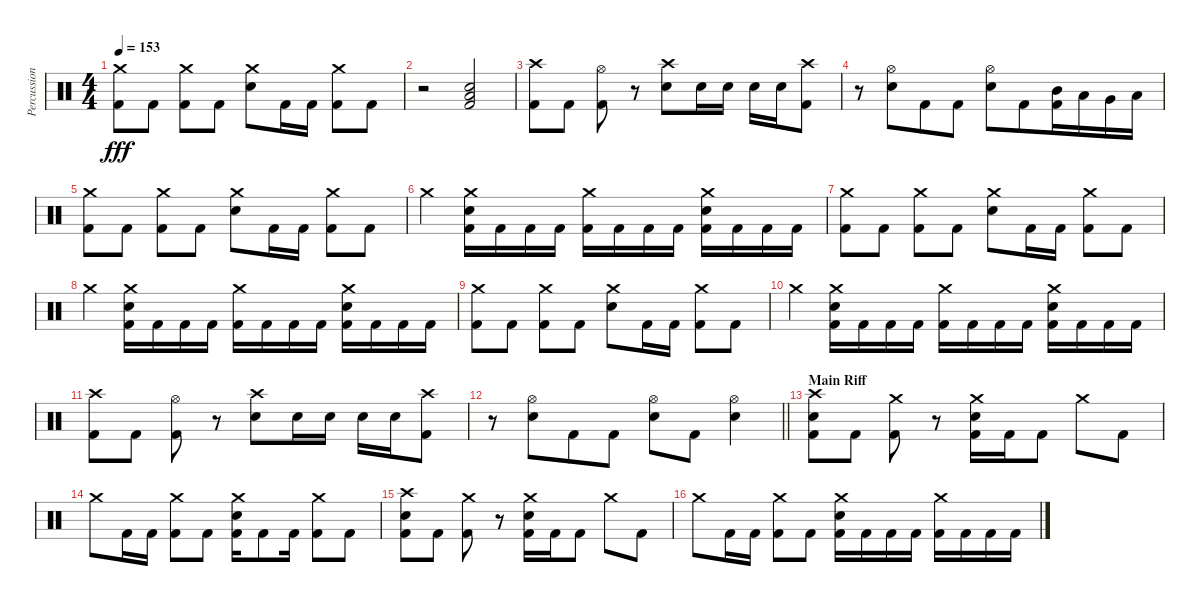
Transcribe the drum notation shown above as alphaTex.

\track ("Percussion" "Percussion") {instrument percussion}
\staff {score}
\articulation defaults
\ts (4 4)
\tempo 153
\clef neutral
\ks c
("Crash medium (hit)" "Kick (hit) 2").8{dy fff} "Kick (hit) 2".8 ("Crash medium (hit)" "Kick (hit) 2").8 "Kick (hit) 2".8 ("Crash medium (hit)" "Snare (hit) 2").8 "Kick (hit) 2".16 "Kick (hit) 2".16 ("Crash medium (hit)" "Kick (hit) 2").8 "Kick (hit) 2".8 |
r.2 ("Low Floor Tom (hit)" "Kick (hit) 2" "Snare (hit) 2").2 |
("Crash high (hit)" "Kick (hit) 2").8 "Kick (hit) 2".8 ("Hi-Hat (open)" "Kick (hit) 2").8 r.8{beam merge} ("Crash high (hit)" "Snare (hit) 2").8 "Snare (hit) 2".16 "Snare (hit) 2".16 "Snare (hit) 2".16{beam merge} "Snare (hit) 2".16 ("Crash high (hit)" "Kick (hit) 2").8 |
r.8 ("Hi-Hat (open)" "Snare (hit) 2").8{beam merge} "Kick (hit) 2".8{beam merge} "Kick (hit) 2".8 ("Hi-Hat (open)" "Snare (hit) 2").8{beam merge} "Kick (hit) 2".8{beam merge} ("Mid Tom (hit)" "Kick (hit) 2").16 "Low Tom (hit)".16{beam merge} "Very Low Tom (hit)".16 "Low Floor Tom (hit)".16 |
("Crash medium (hit)" "Kick (hit) 2").8 "Kick (hit) 2".8 ("Crash medium (hit)" "Kick (hit) 2").8 "Kick (hit) 2".8 ("Crash medium (hit)" "Snare (hit) 2").8 "Kick (hit) 2".16 "Kick (hit) 2".16 ("Crash medium (hit)" "Kick (hit) 2").8 "Kick (hit) 2".8 |
"Crash medium (hit)".4 ("Crash medium (hit)" "Snare (hit) 2" "Kick (hit) 2").16 "Kick (hit) 2".16 "Kick (hit) 2".16 "Kick (hit) 2".16 ("Crash medium (hit)" "Kick (hit) 2").16 "Kick (hit) 2".16 "Kick (hit) 2".16 "Kick (hit) 2".16 ("Crash medium (hit)" "Snare (hit) 2" "Kick (hit) 2").16 "Kick (hit) 2".16 "Kick (hit) 2".16 "Kick (hit) 2".16 |
("Crash medium (hit)" "Kick (hit) 2").8 "Kick (hit) 2".8 ("Crash medium (hit)" "Kick (hit) 2").8 "Kick (hit) 2".8 ("Crash medium (hit)" "Snare (hit) 2").8 "Kick (hit) 2".16 "Kick (hit) 2".16 ("Crash medium (hit)" "Kick (hit) 2").8 "Kick (hit) 2".8 |
"Crash medium (hit)".4 ("Crash medium (hit)" "Snare (hit) 2" "Kick (hit) 2").16 "Kick (hit) 2".16 "Kick (hit) 2".16 "Kick (hit) 2".16 ("Crash medium (hit)" "Kick (hit) 2").16 "Kick (hit) 2".16 "Kick (hit) 2".16 "Kick (hit) 2".16 ("Crash medium (hit)" "Snare (hit) 2" "Kick (hit) 2").16 "Kick (hit) 2".16 "Kick (hit) 2".16 "Kick (hit) 2".16 |
("Crash medium (hit)" "Kick (hit) 2").8 "Kick (hit) 2".8 ("Crash medium (hit)" "Kick (hit) 2").8 "Kick (hit) 2".8 ("Crash medium (hit)" "Snare (hit) 2").8 "Kick (hit) 2".16 "Kick (hit) 2".16 ("Crash medium (hit)" "Kick (hit) 2").8 "Kick (hit) 2".8 |
"Crash medium (hit)".4 ("Crash medium (hit)" "Snare (hit) 2" "Kick (hit) 2").16 "Kick (hit) 2".16 "Kick (hit) 2".16 "Kick (hit) 2".16 ("Crash medium (hit)" "Kick (hit) 2").16 "Kick (hit) 2".16 "Kick (hit) 2".16 "Kick (hit) 2".16 ("Crash medium (hit)" "Snare (hit) 2" "Kick (hit) 2").16 "Kick (hit) 2".16 "Kick (hit) 2".16 "Kick (hit) 2".16 |
("Crash high (hit)" "Kick (hit) 2").8 "Kick (hit) 2".8 ("Hi-Hat (open)" "Kick (hit) 2").8 r.8{beam merge} ("Crash high (hit)" "Snare (hit) 2").8 "Snare (hit) 2".16 "Snare (hit) 2".16 "Snare (hit) 2".16{beam merge} "Snare (hit) 2".16 ("Crash high (hit)" "Kick (hit) 2").8 |
\barLineRight lightlight
r.8 ("Hi-Hat (open)" "Snare (hit) 2").8{beam merge} "Kick (hit) 2".8{beam merge} "Kick (hit) 2".8 ("Hi-Hat (open)" "Snare (hit) 2").8{beam merge} "Kick (hit) 2".8 ("Hi-Hat (open)" "Snare (hit) 2").4 |
\section ("" "Main Riff")
("Crash high (hit)" "Snare (hit) 2" "Kick (hit) 2").8 "Kick (hit) 2".8 ("Crash medium (hit)" "Kick (hit) 2").8 r.8 ("Snare (hit) 2" "Crash medium (hit)" "Kick (hit) 2").16 "Kick (hit) 2".16 "Kick (hit) 2".8 "Crash medium (hit)".8 "Kick (hit) 2".8 |
"Crash medium (hit)".8 "Kick (hit) 2".16 "Kick (hit) 2".16 ("Crash medium (hit)" "Kick (hit) 2").8 "Kick (hit) 2".8 ("Snare (hit) 2" "Crash medium (hit)" "Kick (hit) 2").16 "Kick (hit) 2".8 "Kick (hit) 2".16 ("Crash medium (hit)" "Kick (hit) 2").8 "Kick (hit) 2".8 |
("Crash high (hit)" "Snare (hit) 2" "Kick (hit) 2").8 "Kick (hit) 2".8 ("Crash medium (hit)" "Kick (hit) 2").8 r.8 ("Snare (hit) 2" "Crash medium (hit)" "Kick (hit) 2").16 "Kick (hit) 2".16 "Kick (hit) 2".8 "Crash medium (hit)".8 "Kick (hit) 2".8 |
"Crash medium (hit)".8 "Kick (hit) 2".16 "Kick (hit) 2".16 ("Crash medium (hit)" "Kick (hit) 2").8 "Kick (hit) 2".8 ("Snare (hit) 2" "Crash medium (hit)" "Kick (hit) 2").16 "Kick (hit) 2".16 "Kick (hit) 2".16 "Kick (hit) 2".16 ("Crash medium (hit)" "Kick (hit) 2").16 "Kick (hit) 2".16 "Kick (hit) 2".16 "Kick (hit) 2".16
